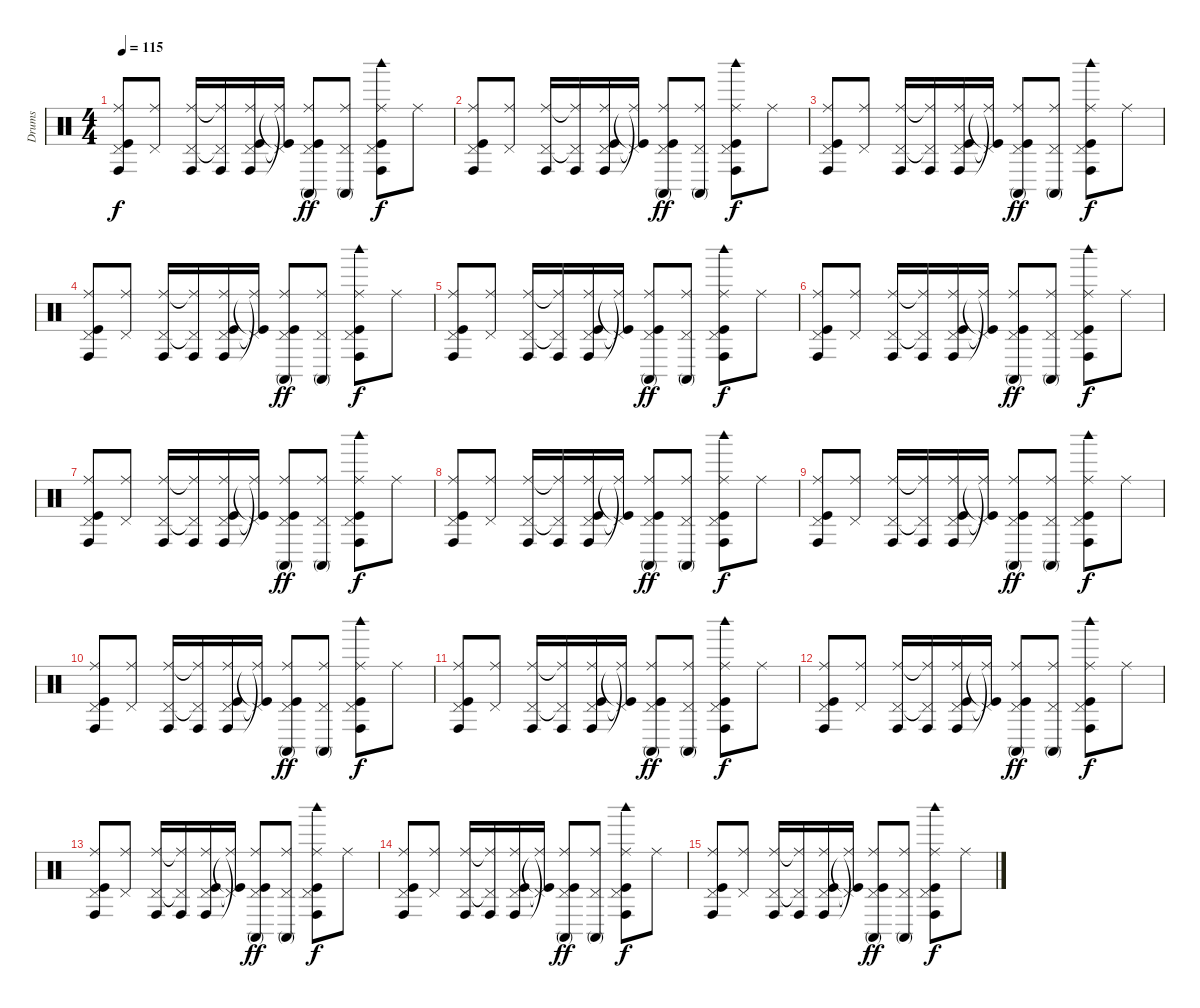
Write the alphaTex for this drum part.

\track ("Drums" "Drums") {instrument percussion}
\staff {score}
\articulation defaults
\ts (4 4)
\tempo 115
\clef neutral
\ks c
("Pedal Hi-Hat (hit)" "Conga high (hit)" "Ride (middle)" "Kick (hit)").8{dy f} ("Pedal Hi-Hat (hit)" "Ride (middle)").8 ("Pedal Hi-Hat (hit)" "Conga high (hit)" "Ride (middle)").16 ("Pedal Hi-Hat (hit)"{t} "Conga high (hit)" "Ride (middle)"{t}).16 ("Pedal Hi-Hat (hit)" "Conga high (hit)" "Ride (middle)" "Kick (hit)").16 ("Pedal Hi-Hat (hit)"{t} "Ride (middle)"{t} "Kick (hit)"{t}).16 ("Pedal Hi-Hat (hit)" "Conga high (mute)" "Ride (middle)" "Kick (hit)").8{dy ff} ("Pedal Hi-Hat (hit)" "Conga high (mute)" "Ride (middle)").8 ("Pedal Hi-Hat (hit)" "Conga high (hit)" "Woodblock high (hit)" "Ride (middle)" "Kick (hit)").8{dy f} "Ride (middle)".8 |
("Pedal Hi-Hat (hit)" "Conga high (hit)" "Ride (middle)" "Kick (hit)").8 ("Pedal Hi-Hat (hit)" "Ride (middle)").8 ("Pedal Hi-Hat (hit)" "Conga high (hit)" "Ride (middle)").16 ("Pedal Hi-Hat (hit)"{t} "Conga high (hit)" "Ride (middle)"{t}).16 ("Pedal Hi-Hat (hit)" "Conga high (hit)" "Ride (middle)" "Kick (hit)").16 ("Pedal Hi-Hat (hit)"{t} "Ride (middle)"{t} "Kick (hit)"{t}).16 ("Pedal Hi-Hat (hit)" "Conga high (mute)" "Ride (middle)" "Kick (hit)").8{dy ff} ("Pedal Hi-Hat (hit)" "Conga high (mute)" "Ride (middle)").8 ("Pedal Hi-Hat (hit)" "Conga high (hit)" "Woodblock high (hit)" "Ride (middle)" "Kick (hit)").8{dy f} "Ride (middle)".8 |
("Pedal Hi-Hat (hit)" "Conga high (hit)" "Ride (middle)" "Kick (hit)").8 ("Pedal Hi-Hat (hit)" "Ride (middle)").8 ("Pedal Hi-Hat (hit)" "Conga high (hit)" "Ride (middle)").16 ("Pedal Hi-Hat (hit)"{t} "Conga high (hit)" "Ride (middle)"{t}).16 ("Pedal Hi-Hat (hit)" "Conga high (hit)" "Ride (middle)" "Kick (hit)").16 ("Pedal Hi-Hat (hit)"{t} "Ride (middle)"{t} "Kick (hit)"{t}).16 ("Pedal Hi-Hat (hit)" "Conga high (mute)" "Ride (middle)" "Kick (hit)").8{dy ff} ("Pedal Hi-Hat (hit)" "Conga high (mute)" "Ride (middle)").8 ("Pedal Hi-Hat (hit)" "Conga high (hit)" "Woodblock high (hit)" "Ride (middle)" "Kick (hit)").8{dy f} "Ride (middle)".8 |
("Pedal Hi-Hat (hit)" "Conga high (hit)" "Ride (middle)" "Kick (hit)").8 ("Pedal Hi-Hat (hit)" "Ride (middle)").8 ("Pedal Hi-Hat (hit)" "Conga high (hit)" "Ride (middle)").16 ("Pedal Hi-Hat (hit)"{t} "Conga high (hit)" "Ride (middle)"{t}).16 ("Pedal Hi-Hat (hit)" "Conga high (hit)" "Ride (middle)" "Kick (hit)").16 ("Pedal Hi-Hat (hit)"{t} "Ride (middle)"{t} "Kick (hit)"{t}).16 ("Pedal Hi-Hat (hit)" "Conga high (mute)" "Ride (middle)" "Kick (hit)").8{dy ff} ("Pedal Hi-Hat (hit)" "Conga high (mute)" "Ride (middle)").8 ("Pedal Hi-Hat (hit)" "Conga high (hit)" "Woodblock high (hit)" "Ride (middle)" "Kick (hit)").8{dy f} "Ride (middle)".8 |
("Pedal Hi-Hat (hit)" "Conga high (hit)" "Ride (middle)" "Kick (hit)").8 ("Pedal Hi-Hat (hit)" "Ride (middle)").8 ("Pedal Hi-Hat (hit)" "Conga high (hit)" "Ride (middle)").16 ("Pedal Hi-Hat (hit)"{t} "Conga high (hit)" "Ride (middle)"{t}).16 ("Pedal Hi-Hat (hit)" "Conga high (hit)" "Ride (middle)" "Kick (hit)").16 ("Pedal Hi-Hat (hit)"{t} "Ride (middle)"{t} "Kick (hit)"{t}).16 ("Pedal Hi-Hat (hit)" "Conga high (mute)" "Ride (middle)" "Kick (hit)").8{dy ff} ("Pedal Hi-Hat (hit)" "Conga high (mute)" "Ride (middle)").8 ("Pedal Hi-Hat (hit)" "Conga high (hit)" "Woodblock high (hit)" "Ride (middle)" "Kick (hit)").8{dy f} "Ride (middle)".8 |
("Pedal Hi-Hat (hit)" "Conga high (hit)" "Ride (middle)" "Kick (hit)").8 ("Pedal Hi-Hat (hit)" "Ride (middle)").8 ("Pedal Hi-Hat (hit)" "Conga high (hit)" "Ride (middle)").16 ("Pedal Hi-Hat (hit)"{t} "Conga high (hit)" "Ride (middle)"{t}).16 ("Pedal Hi-Hat (hit)" "Conga high (hit)" "Ride (middle)" "Kick (hit)").16 ("Pedal Hi-Hat (hit)"{t} "Ride (middle)"{t} "Kick (hit)"{t}).16 ("Pedal Hi-Hat (hit)" "Conga high (mute)" "Ride (middle)" "Kick (hit)").8{dy ff} ("Pedal Hi-Hat (hit)" "Conga high (mute)" "Ride (middle)").8 ("Pedal Hi-Hat (hit)" "Conga high (hit)" "Woodblock high (hit)" "Ride (middle)" "Kick (hit)").8{dy f} "Ride (middle)".8 |
("Pedal Hi-Hat (hit)" "Conga high (hit)" "Ride (middle)" "Kick (hit)").8 ("Pedal Hi-Hat (hit)" "Ride (middle)").8 ("Pedal Hi-Hat (hit)" "Conga high (hit)" "Ride (middle)").16 ("Pedal Hi-Hat (hit)"{t} "Conga high (hit)" "Ride (middle)"{t}).16 ("Pedal Hi-Hat (hit)" "Conga high (hit)" "Ride (middle)" "Kick (hit)").16 ("Pedal Hi-Hat (hit)"{t} "Ride (middle)"{t} "Kick (hit)"{t}).16 ("Pedal Hi-Hat (hit)" "Conga high (mute)" "Ride (middle)" "Kick (hit)").8{dy ff} ("Pedal Hi-Hat (hit)" "Conga high (mute)" "Ride (middle)").8 ("Pedal Hi-Hat (hit)" "Conga high (hit)" "Woodblock high (hit)" "Ride (middle)" "Kick (hit)").8{dy f} "Ride (middle)".8 |
("Pedal Hi-Hat (hit)" "Conga high (hit)" "Ride (middle)" "Kick (hit)").8 ("Pedal Hi-Hat (hit)" "Ride (middle)").8 ("Pedal Hi-Hat (hit)" "Conga high (hit)" "Ride (middle)").16 ("Pedal Hi-Hat (hit)"{t} "Conga high (hit)" "Ride (middle)"{t}).16 ("Pedal Hi-Hat (hit)" "Conga high (hit)" "Ride (middle)" "Kick (hit)").16 ("Pedal Hi-Hat (hit)"{t} "Ride (middle)"{t} "Kick (hit)"{t}).16 ("Pedal Hi-Hat (hit)" "Conga high (mute)" "Ride (middle)" "Kick (hit)").8{dy ff} ("Pedal Hi-Hat (hit)" "Conga high (mute)" "Ride (middle)").8 ("Pedal Hi-Hat (hit)" "Conga high (hit)" "Woodblock high (hit)" "Ride (middle)" "Kick (hit)").8{dy f} "Ride (middle)".8 |
("Pedal Hi-Hat (hit)" "Conga high (hit)" "Ride (middle)" "Kick (hit)").8 ("Pedal Hi-Hat (hit)" "Ride (middle)").8 ("Pedal Hi-Hat (hit)" "Conga high (hit)" "Ride (middle)").16 ("Pedal Hi-Hat (hit)"{t} "Conga high (hit)" "Ride (middle)"{t}).16 ("Pedal Hi-Hat (hit)" "Conga high (hit)" "Ride (middle)" "Kick (hit)").16 ("Pedal Hi-Hat (hit)"{t} "Ride (middle)"{t} "Kick (hit)"{t}).16 ("Pedal Hi-Hat (hit)" "Conga high (mute)" "Ride (middle)" "Kick (hit)").8{dy ff} ("Pedal Hi-Hat (hit)" "Conga high (mute)" "Ride (middle)").8 ("Pedal Hi-Hat (hit)" "Conga high (hit)" "Woodblock high (hit)" "Ride (middle)" "Kick (hit)").8{dy f} "Ride (middle)".8 |
("Pedal Hi-Hat (hit)" "Conga high (hit)" "Ride (middle)" "Kick (hit)").8 ("Pedal Hi-Hat (hit)" "Ride (middle)").8 ("Pedal Hi-Hat (hit)" "Conga high (hit)" "Ride (middle)").16 ("Pedal Hi-Hat (hit)"{t} "Conga high (hit)" "Ride (middle)"{t}).16 ("Pedal Hi-Hat (hit)" "Conga high (hit)" "Ride (middle)" "Kick (hit)").16 ("Pedal Hi-Hat (hit)"{t} "Ride (middle)"{t} "Kick (hit)"{t}).16 ("Pedal Hi-Hat (hit)" "Conga high (mute)" "Ride (middle)" "Kick (hit)").8{dy ff} ("Pedal Hi-Hat (hit)" "Conga high (mute)" "Ride (middle)").8 ("Pedal Hi-Hat (hit)" "Conga high (hit)" "Woodblock high (hit)" "Ride (middle)" "Kick (hit)").8{dy f} "Ride (middle)".8 |
("Pedal Hi-Hat (hit)" "Conga high (hit)" "Ride (middle)" "Kick (hit)").8 ("Pedal Hi-Hat (hit)" "Ride (middle)").8 ("Pedal Hi-Hat (hit)" "Conga high (hit)" "Ride (middle)").16 ("Pedal Hi-Hat (hit)"{t} "Conga high (hit)" "Ride (middle)"{t}).16 ("Pedal Hi-Hat (hit)" "Conga high (hit)" "Ride (middle)" "Kick (hit)").16 ("Pedal Hi-Hat (hit)"{t} "Ride (middle)"{t} "Kick (hit)"{t}).16 ("Pedal Hi-Hat (hit)" "Conga high (mute)" "Ride (middle)" "Kick (hit)").8{dy ff} ("Pedal Hi-Hat (hit)" "Conga high (mute)" "Ride (middle)").8 ("Pedal Hi-Hat (hit)" "Conga high (hit)" "Woodblock high (hit)" "Ride (middle)" "Kick (hit)").8{dy f} "Ride (middle)".8 |
("Pedal Hi-Hat (hit)" "Conga high (hit)" "Ride (middle)" "Kick (hit)").8 ("Pedal Hi-Hat (hit)" "Ride (middle)").8 ("Pedal Hi-Hat (hit)" "Conga high (hit)" "Ride (middle)").16 ("Pedal Hi-Hat (hit)"{t} "Conga high (hit)" "Ride (middle)"{t}).16 ("Pedal Hi-Hat (hit)" "Conga high (hit)" "Ride (middle)" "Kick (hit)").16 ("Pedal Hi-Hat (hit)"{t} "Ride (middle)"{t} "Kick (hit)"{t}).16 ("Pedal Hi-Hat (hit)" "Conga high (mute)" "Ride (middle)" "Kick (hit)").8{dy ff} ("Pedal Hi-Hat (hit)" "Conga high (mute)" "Ride (middle)").8 ("Pedal Hi-Hat (hit)" "Conga high (hit)" "Woodblock high (hit)" "Ride (middle)" "Kick (hit)").8{dy f} "Ride (middle)".8 |
("Pedal Hi-Hat (hit)" "Conga high (hit)" "Ride (middle)" "Kick (hit)").8 ("Pedal Hi-Hat (hit)" "Ride (middle)").8 ("Pedal Hi-Hat (hit)" "Conga high (hit)" "Ride (middle)").16 ("Pedal Hi-Hat (hit)"{t} "Conga high (hit)" "Ride (middle)"{t}).16 ("Pedal Hi-Hat (hit)" "Conga high (hit)" "Ride (middle)" "Kick (hit)").16 ("Pedal Hi-Hat (hit)"{t} "Ride (middle)"{t} "Kick (hit)"{t}).16 ("Pedal Hi-Hat (hit)" "Conga high (mute)" "Ride (middle)" "Kick (hit)").8{dy ff} ("Pedal Hi-Hat (hit)" "Conga high (mute)" "Ride (middle)").8 ("Pedal Hi-Hat (hit)" "Conga high (hit)" "Woodblock high (hit)" "Ride (middle)" "Kick (hit)").8{dy f} "Ride (middle)".8 |
("Pedal Hi-Hat (hit)" "Conga high (hit)" "Ride (middle)" "Kick (hit)").8 ("Pedal Hi-Hat (hit)" "Ride (middle)").8 ("Pedal Hi-Hat (hit)" "Conga high (hit)" "Ride (middle)").16 ("Pedal Hi-Hat (hit)"{t} "Conga high (hit)" "Ride (middle)"{t}).16 ("Pedal Hi-Hat (hit)" "Conga high (hit)" "Ride (middle)" "Kick (hit)").16 ("Pedal Hi-Hat (hit)"{t} "Ride (middle)"{t} "Kick (hit)"{t}).16 ("Pedal Hi-Hat (hit)" "Conga high (mute)" "Ride (middle)" "Kick (hit)").8{dy ff} ("Pedal Hi-Hat (hit)" "Conga high (mute)" "Ride (middle)").8 ("Pedal Hi-Hat (hit)" "Conga high (hit)" "Woodblock high (hit)" "Ride (middle)" "Kick (hit)").8{dy f} "Ride (middle)".8 |
("Pedal Hi-Hat (hit)" "Conga high (hit)" "Ride (middle)" "Kick (hit)").8 ("Pedal Hi-Hat (hit)" "Ride (middle)").8 ("Pedal Hi-Hat (hit)" "Conga high (hit)" "Ride (middle)").16 ("Pedal Hi-Hat (hit)"{t} "Conga high (hit)" "Ride (middle)"{t}).16 ("Pedal Hi-Hat (hit)" "Conga high (hit)" "Ride (middle)" "Kick (hit)").16 ("Pedal Hi-Hat (hit)"{t} "Ride (middle)"{t} "Kick (hit)"{t}).16 ("Pedal Hi-Hat (hit)" "Conga high (mute)" "Ride (middle)" "Kick (hit)").8{dy ff} ("Pedal Hi-Hat (hit)" "Conga high (mute)" "Ride (middle)").8 ("Pedal Hi-Hat (hit)" "Conga high (hit)" "Woodblock high (hit)" "Ride (middle)" "Kick (hit)").8{dy f} "Ride (middle)".8
